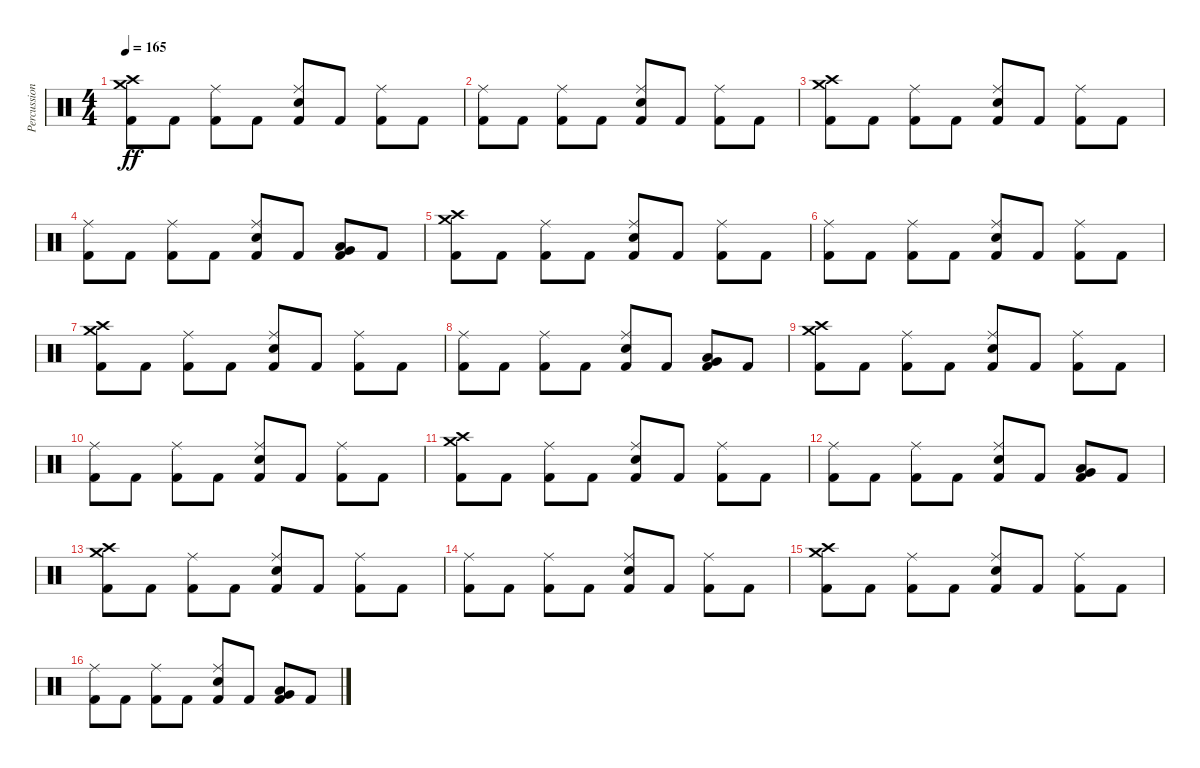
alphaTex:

\track ("Percussion" "Percussion") {instrument percussion}
\staff {score}
\articulation defaults
\ts (4 4)
\tempo 165
\clef neutral
\ks c
("Kick (hit) 2" "Crash medium (hit)" "Crash high (hit)").8{dy ff} "Kick (hit) 2".8 ("Kick (hit) 2" "Ride (middle)").8 "Kick (hit) 2".8 ("Kick (hit) 2" "Electric Snare (hit)" "Ride (middle)").8 "Kick (hit) 2".8 ("Kick (hit) 2" "Ride (middle)").8 "Kick (hit) 2".8 |
("Kick (hit) 2" "Ride (middle)").8 "Kick (hit) 2".8 ("Kick (hit) 2" "Ride (middle)").8 "Kick (hit) 2".8 ("Kick (hit) 2" "Electric Snare (hit)" "Ride (middle)").8 "Kick (hit) 2".8 ("Kick (hit) 2" "Ride (middle)").8 "Kick (hit) 2".8 |
("Kick (hit) 2" "Crash medium (hit)" "Crash high (hit)").8 "Kick (hit) 2".8 ("Kick (hit) 2" "Ride (middle)").8 "Kick (hit) 2".8 ("Kick (hit) 2" "Electric Snare (hit)" "Ride (middle)").8 "Kick (hit) 2".8 ("Kick (hit) 2" "Ride (middle)").8 "Kick (hit) 2".8 |
("Kick (hit) 2" "Ride (middle)").8 "Kick (hit) 2".8 ("Kick (hit) 2" "Ride (middle)").8 "Kick (hit) 2".8 ("Kick (hit) 2" "Electric Snare (hit)" "Ride (middle)").8 "Kick (hit) 2".8 ("Kick (hit) 2" "Very Low Tom (hit)" "Low Tom (hit)").8 "Kick (hit) 2".8 |
("Kick (hit) 2" "Crash medium (hit)" "Crash high (hit)").8 "Kick (hit) 2".8 ("Kick (hit) 2" "Ride (middle)").8 "Kick (hit) 2".8 ("Kick (hit) 2" "Electric Snare (hit)" "Ride (middle)").8 "Kick (hit) 2".8 ("Kick (hit) 2" "Ride (middle)").8 "Kick (hit) 2".8 |
("Kick (hit) 2" "Ride (middle)").8 "Kick (hit) 2".8 ("Kick (hit) 2" "Ride (middle)").8 "Kick (hit) 2".8 ("Kick (hit) 2" "Electric Snare (hit)" "Ride (middle)").8 "Kick (hit) 2".8 ("Kick (hit) 2" "Ride (middle)").8 "Kick (hit) 2".8 |
("Kick (hit) 2" "Crash medium (hit)" "Crash high (hit)").8 "Kick (hit) 2".8 ("Kick (hit) 2" "Ride (middle)").8 "Kick (hit) 2".8 ("Kick (hit) 2" "Electric Snare (hit)" "Ride (middle)").8 "Kick (hit) 2".8 ("Kick (hit) 2" "Ride (middle)").8 "Kick (hit) 2".8 |
("Kick (hit) 2" "Ride (middle)").8 "Kick (hit) 2".8 ("Kick (hit) 2" "Ride (middle)").8 "Kick (hit) 2".8 ("Kick (hit) 2" "Electric Snare (hit)" "Ride (middle)").8 "Kick (hit) 2".8 ("Kick (hit) 2" "Very Low Tom (hit)" "Low Tom (hit)").8 "Kick (hit) 2".8 |
("Kick (hit) 2" "Crash medium (hit)" "Crash high (hit)").8 "Kick (hit) 2".8 ("Kick (hit) 2" "Ride (middle)").8 "Kick (hit) 2".8 ("Kick (hit) 2" "Electric Snare (hit)" "Ride (middle)").8 "Kick (hit) 2".8 ("Kick (hit) 2" "Ride (middle)").8 "Kick (hit) 2".8 |
("Kick (hit) 2" "Ride (middle)").8 "Kick (hit) 2".8 ("Kick (hit) 2" "Ride (middle)").8 "Kick (hit) 2".8 ("Kick (hit) 2" "Electric Snare (hit)" "Ride (middle)").8 "Kick (hit) 2".8 ("Kick (hit) 2" "Ride (middle)").8 "Kick (hit) 2".8 |
("Kick (hit) 2" "Crash medium (hit)" "Crash high (hit)").8 "Kick (hit) 2".8 ("Kick (hit) 2" "Ride (middle)").8 "Kick (hit) 2".8 ("Kick (hit) 2" "Electric Snare (hit)" "Ride (middle)").8 "Kick (hit) 2".8 ("Kick (hit) 2" "Ride (middle)").8 "Kick (hit) 2".8 |
("Kick (hit) 2" "Ride (middle)").8 "Kick (hit) 2".8 ("Kick (hit) 2" "Ride (middle)").8 "Kick (hit) 2".8 ("Kick (hit) 2" "Electric Snare (hit)" "Ride (middle)").8 "Kick (hit) 2".8 ("Kick (hit) 2" "Very Low Tom (hit)" "Low Tom (hit)").8 "Kick (hit) 2".8 |
("Kick (hit) 2" "Crash medium (hit)" "Crash high (hit)").8 "Kick (hit) 2".8 ("Kick (hit) 2" "Ride (middle)").8 "Kick (hit) 2".8 ("Kick (hit) 2" "Electric Snare (hit)" "Ride (middle)").8 "Kick (hit) 2".8 ("Kick (hit) 2" "Ride (middle)").8 "Kick (hit) 2".8 |
("Kick (hit) 2" "Ride (middle)").8 "Kick (hit) 2".8 ("Kick (hit) 2" "Ride (middle)").8 "Kick (hit) 2".8 ("Kick (hit) 2" "Electric Snare (hit)" "Ride (middle)").8 "Kick (hit) 2".8 ("Kick (hit) 2" "Ride (middle)").8 "Kick (hit) 2".8 |
("Kick (hit) 2" "Crash medium (hit)" "Crash high (hit)").8 "Kick (hit) 2".8 ("Kick (hit) 2" "Ride (middle)").8 "Kick (hit) 2".8 ("Kick (hit) 2" "Electric Snare (hit)" "Ride (middle)").8 "Kick (hit) 2".8 ("Kick (hit) 2" "Ride (middle)").8 "Kick (hit) 2".8 |
("Kick (hit) 2" "Ride (middle)").8 "Kick (hit) 2".8 ("Kick (hit) 2" "Ride (middle)").8 "Kick (hit) 2".8 ("Kick (hit) 2" "Electric Snare (hit)" "Ride (middle)").8 "Kick (hit) 2".8 ("Kick (hit) 2" "Very Low Tom (hit)" "Low Tom (hit)").8 "Kick (hit) 2".8
